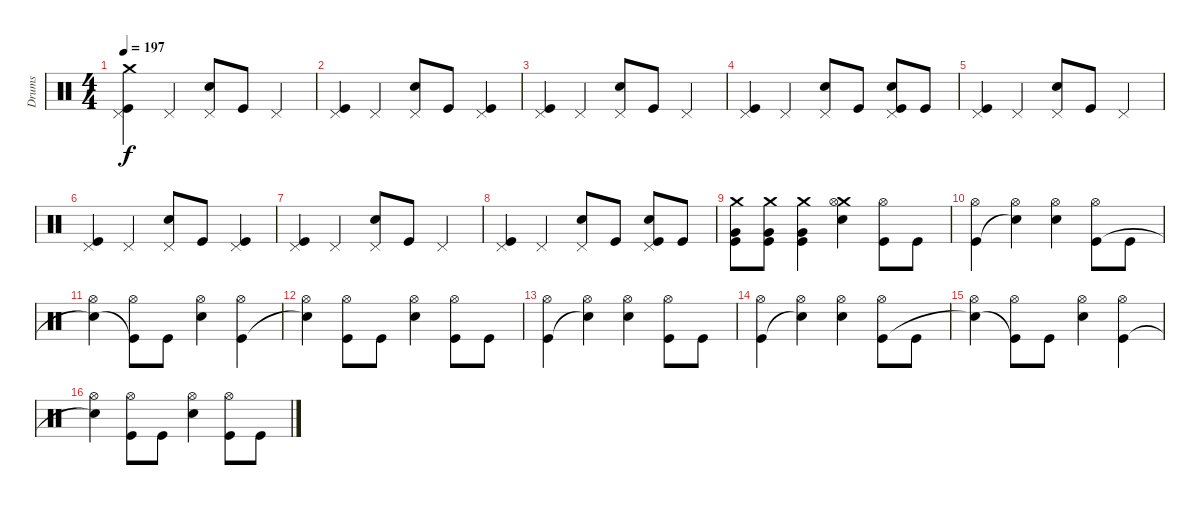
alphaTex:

\track ("Drums" "Drums") {instrument percussion}
\staff {score}
\articulation defaults
\ts (4 4)
\tempo 197
\clef neutral
\ks c
("Crash medium (hit)" "Pedal Hi-Hat (hit)" "Kick (hit)").4{dy f volume 16} "Pedal Hi-Hat (hit)".4 ("Pedal Hi-Hat (hit)" "Snare (hit) 2").8 "Kick (hit)".8 "Pedal Hi-Hat (hit)".4 |
("Pedal Hi-Hat (hit)" "Kick (hit)").4 "Pedal Hi-Hat (hit)".4 ("Pedal Hi-Hat (hit)" "Snare (hit) 2").8 "Kick (hit)".8 ("Pedal Hi-Hat (hit)" "Kick (hit)").4 |
("Pedal Hi-Hat (hit)" "Kick (hit)").4 "Pedal Hi-Hat (hit)".4 ("Pedal Hi-Hat (hit)" "Snare (hit) 2").8 "Kick (hit)".8 "Pedal Hi-Hat (hit)".4 |
("Pedal Hi-Hat (hit)" "Kick (hit)").4 "Pedal Hi-Hat (hit)".4 ("Pedal Hi-Hat (hit)" "Snare (hit) 2").8 "Kick (hit)".8 ("Pedal Hi-Hat (hit)" "Snare (hit) 2" "Kick (hit)").8 "Kick (hit)".8 |
("Pedal Hi-Hat (hit)" "Kick (hit)").4 "Pedal Hi-Hat (hit)".4 ("Pedal Hi-Hat (hit)" "Snare (hit) 2").8 "Kick (hit)".8 "Pedal Hi-Hat (hit)".4 |
("Pedal Hi-Hat (hit)" "Kick (hit)").4 "Pedal Hi-Hat (hit)".4 ("Pedal Hi-Hat (hit)" "Snare (hit) 2").8 "Kick (hit)".8 ("Pedal Hi-Hat (hit)" "Kick (hit)").4 |
("Pedal Hi-Hat (hit)" "Kick (hit)").4 "Pedal Hi-Hat (hit)".4 ("Pedal Hi-Hat (hit)" "Snare (hit) 2").8 "Kick (hit)".8 "Pedal Hi-Hat (hit)".4 |
("Pedal Hi-Hat (hit)" "Kick (hit)").4 "Pedal Hi-Hat (hit)".4 ("Pedal Hi-Hat (hit)" "Snare (hit) 2").8 "Kick (hit)".8 ("Pedal Hi-Hat (hit)" "Snare (hit) 2" "Kick (hit)").8 "Kick (hit)".8 |
\section ("" "")
("Crash medium (hit)" "Very Low Tom (hit)" "Kick (hit)").8 ("Crash medium (hit)" "Very Low Tom (hit)" "Kick (hit)").8 ("Crash medium (hit)" "Very Low Tom (hit)" "Kick (hit)").4 ("Crash medium (hit)" "Hi-Hat (open)" "Snare (hit) 2").4 ("Hi-Hat (open)" "Kick (hit)").8 "Kick (hit)".8 |
("Hi-Hat (open)" "Kick (hit)").4 ("Hi-Hat (open)" "Snare (hit)"{t}).4 ("Hi-Hat (open)" "Snare (hit) 2").4 ("Hi-Hat (open)" "Kick (hit)").8 "Kick (hit)".8 |
("Hi-Hat (open)" "Snare (hit)"{t}).4 ("Hi-Hat (open)" "Kick (hit)"{t}).8 "Kick (hit)".8 ("Hi-Hat (open)" "Snare (hit) 2").4 ("Hi-Hat (open)" "Kick (hit)").4 |
("Hi-Hat (open)" "Snare (hit)"{t}).4 ("Hi-Hat (open)" "Kick (hit)").8 "Kick (hit)".8 ("Hi-Hat (open)" "Snare (hit) 2").4 ("Hi-Hat (open)" "Kick (hit)").8 "Kick (hit)".8 |
("Hi-Hat (open)" "Kick (hit)").4 ("Hi-Hat (open)" "Snare (hit)"{t}).4 ("Hi-Hat (open)" "Snare (hit) 2").4 ("Hi-Hat (open)" "Kick (hit)").8 "Kick (hit)".8 |
("Hi-Hat (open)" "Kick (hit)").4 ("Hi-Hat (open)" "Snare (hit)"{t}).4 ("Hi-Hat (open)" "Snare (hit) 2").4 ("Hi-Hat (open)" "Kick (hit)").8 "Kick (hit)".8 |
("Hi-Hat (open)" "Snare (hit)"{t}).4 ("Hi-Hat (open)" "Kick (hit)"{t}).8 "Kick (hit)".8 ("Hi-Hat (open)" "Snare (hit) 2").4 ("Hi-Hat (open)" "Kick (hit)").4 |
("Hi-Hat (open)" "Snare (hit)"{t}).4 ("Hi-Hat (open)" "Kick (hit)").8 "Kick (hit)".8 ("Hi-Hat (open)" "Snare (hit) 2").4 ("Hi-Hat (open)" "Kick (hit)").8 "Kick (hit)".8
